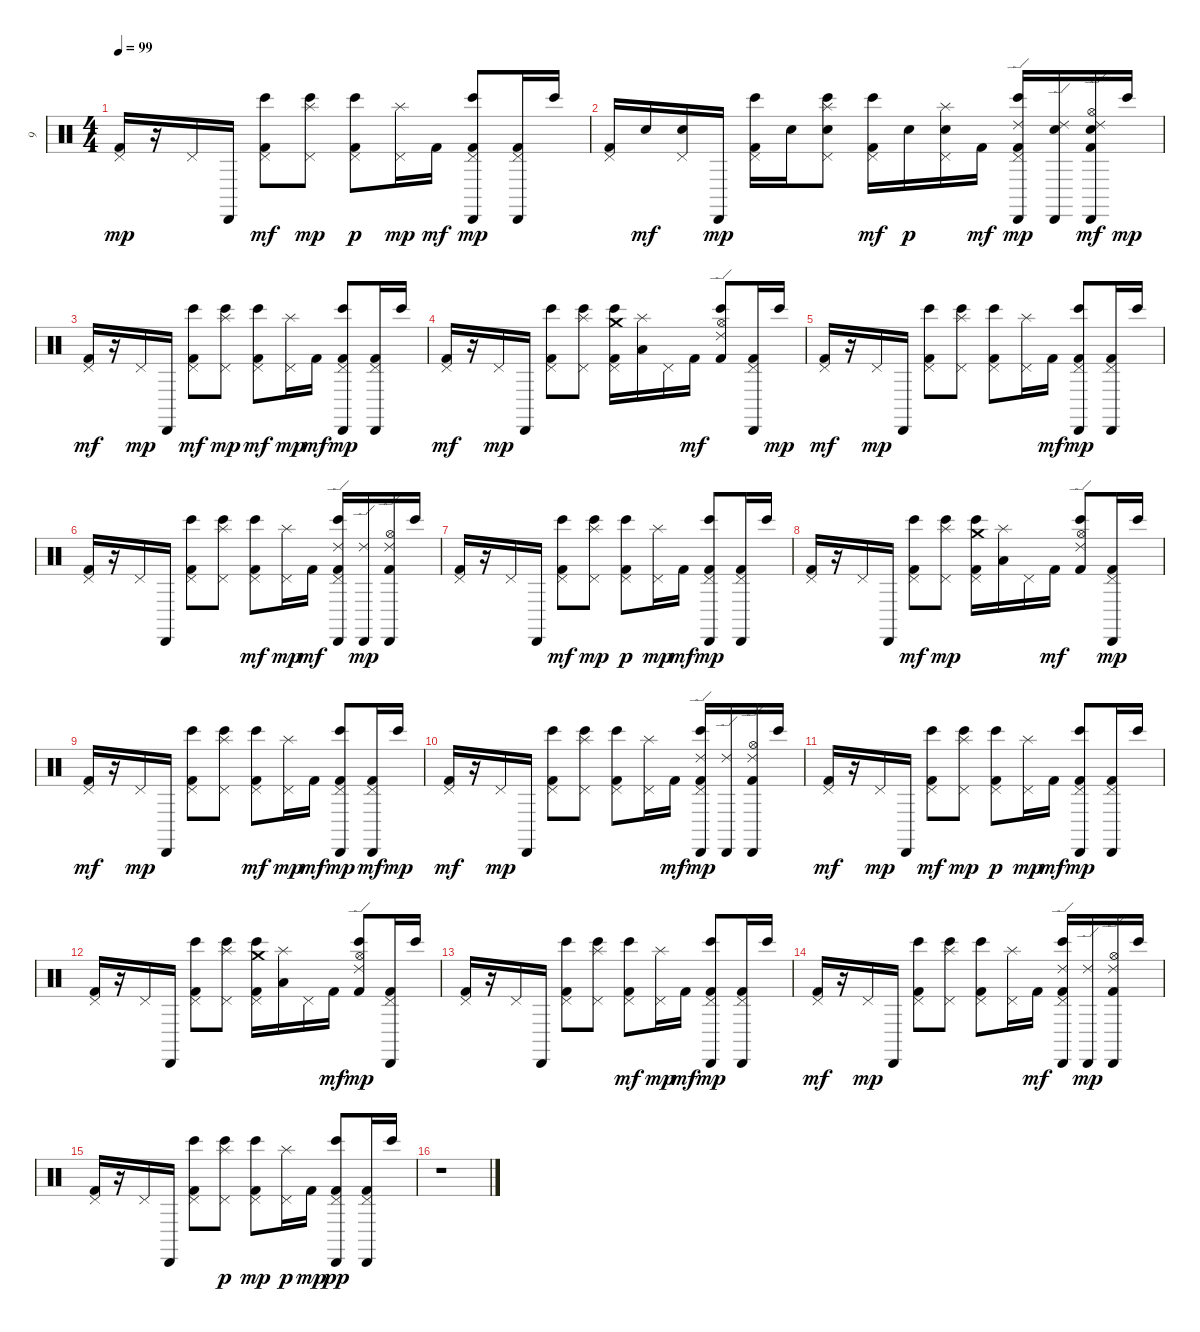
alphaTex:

\track ("9" "9") {instrument percussion}
\staff {score}
\articulation defaults
\ts (4 4)
\tempo 99
\clef neutral
\ks c
("Kick (hit) 2" "Pedal Hi-Hat (hit)").16{dy mp} r.16 "Pedal Hi-Hat (hit)".16 "Cabasa (hit)".16 ("Bongo High (hit)" "Pedal Hi-Hat (hit)" "Kick (hit) 2").8{dy mf} ("Bongo High (hit)" "Pedal Hi-Hat (hit)" "Splash (hit)").8{dy mp} ("Kick (hit) 2" "Pedal Hi-Hat (hit)" "Bongo High (hit)").8{dy p} ("Splash (hit)" "Pedal Hi-Hat (hit)").16{dy mp} "Kick (hit) 2".16{dy mf} ("Kick (hit) 2" "Pedal Hi-Hat (hit)" "Cabasa (hit)" "Bongo High (hit)").8{dy mp} ("Kick (hit) 2" "Cabasa (hit)" "Pedal Hi-Hat (hit)").16 "Bongo High (hit)".16 |
("Kick (hit) 2" "Pedal Hi-Hat (hit)").16 "Snare (hit) 2".16{dy mf} ("Pedal Hi-Hat (hit)" "Snare (hit) 2").16 "Cabasa (hit)".16{dy mp} ("Kick (hit) 2" "Pedal Hi-Hat (hit)" "Bongo High (hit)").16 "Snare (hit) 2".16 ("Pedal Hi-Hat (hit)" "Bongo High (hit)" "Snare (hit) 2" "Splash (hit)").8 ("Bongo High (hit)" "Pedal Hi-Hat (hit)" "Kick (hit) 2").16{dy mf} "Snare (hit) 2".16{dy p} ("Pedal Hi-Hat (hit)" "Splash (hit)" "Snare (hit) 2").16 "Kick (hit) 2".16{dy mf} ("Ride (edge) 2" "Kick (hit) 2" "Cabasa (hit)" "Pedal Hi-Hat (hit)" "Bongo High (hit)").16{dy mp} ("Cabasa (hit)" "Snare (hit) 2" "Ride (edge) 2").16 ("Ride (edge) 2" "Snare (hit) 2" "Cabasa (hit)" "Hi-Hat (open)" "Kick (hit) 2").16{dy mf} "Bongo High (hit)".16{dy mp} |
("Pedal Hi-Hat (hit)" "Kick (hit) 2").16{dy mf} r.16 "Pedal Hi-Hat (hit)".16{dy mp} "Cabasa (hit)".16 ("Bongo High (hit)" "Pedal Hi-Hat (hit)" "Kick (hit) 2").8{dy mf} ("Pedal Hi-Hat (hit)" "Bongo High (hit)" "Splash (hit)").8{dy mp} ("Bongo High (hit)" "Pedal Hi-Hat (hit)" "Kick (hit) 2").8{dy mf} ("Splash (hit)" "Pedal Hi-Hat (hit)").16{dy mp} "Kick (hit) 2".16{dy mf} ("Bongo High (hit)" "Pedal Hi-Hat (hit)" "Kick (hit) 2" "Cabasa (hit)").8{dy mp} ("Kick (hit) 2" "Cabasa (hit)" "Pedal Hi-Hat (hit)").16 "Bongo High (hit)".16 |
("Pedal Hi-Hat (hit)" "Kick (hit) 2").16{dy mf} r.16 "Pedal Hi-Hat (hit)".16{dy mp} "Cabasa (hit)".16 ("Kick (hit) 2" "Pedal Hi-Hat (hit)" "Bongo High (hit)").8 ("Pedal Hi-Hat (hit)" "Bongo High (hit)" "Splash (hit)").8 ("Bongo High (hit)" "Kick (hit) 2" "Pedal Hi-Hat (hit)" "Crash medium (hit)").16 ("Low Tom (hit)" "Splash (hit)").16 "Pedal Hi-Hat (hit)".16 "Kick (hit) 2".16{dy mf} ("Bongo High (hit)" "Ride (edge) 2" "Hi-Hat (open)" "Kick (hit) 2").8 ("Pedal Hi-Hat (hit)" "Cabasa (hit)" "Kick (hit) 2").16 "Bongo High (hit)".16{dy mp} |
("Pedal Hi-Hat (hit)" "Kick (hit) 2").16{dy mf} r.16 "Pedal Hi-Hat (hit)".16{dy mp} "Cabasa (hit)".16 ("Kick (hit) 2" "Pedal Hi-Hat (hit)" "Bongo High (hit)").8 ("Bongo High (hit)" "Pedal Hi-Hat (hit)" "Splash (hit)").8 ("Kick (hit) 2" "Bongo High (hit)" "Pedal Hi-Hat (hit)").8 ("Splash (hit)" "Pedal Hi-Hat (hit)").16 "Kick (hit) 2".16{dy mf} ("Kick (hit) 2" "Cabasa (hit)" "Pedal Hi-Hat (hit)" "Bongo High (hit)").8{dy mp} ("Kick (hit) 2" "Pedal Hi-Hat (hit)" "Cabasa (hit)").16 "Bongo High (hit)".16 |
("Kick (hit) 2" "Pedal Hi-Hat (hit)").16 r.16 "Pedal Hi-Hat (hit)".16 "Cabasa (hit)".16 ("Kick (hit) 2" "Pedal Hi-Hat (hit)" "Bongo High (hit)").8 ("Bongo High (hit)" "Pedal Hi-Hat (hit)" "Splash (hit)").8 ("Pedal Hi-Hat (hit)" "Bongo High (hit)" "Kick (hit) 2").8{dy mf} ("Pedal Hi-Hat (hit)" "Splash (hit)").16{dy mp} "Kick (hit) 2".16{dy mf} ("Bongo High (hit)" "Cabasa (hit)" "Pedal Hi-Hat (hit)" "Ride (edge) 2" "Kick (hit) 2").16 ("Cabasa (hit)" "Ride (edge) 2").16{dy mp} ("Hi-Hat (open)" "Kick (hit) 2" "Ride (edge) 2" "Cabasa (hit)").16 "Bongo High (hit)".16 |
("Kick (hit) 2" "Pedal Hi-Hat (hit)").16 r.16 "Pedal Hi-Hat (hit)".16 "Cabasa (hit)".16 ("Bongo High (hit)" "Pedal Hi-Hat (hit)" "Kick (hit) 2").8{dy mf} ("Pedal Hi-Hat (hit)" "Bongo High (hit)" "Splash (hit)").8{dy mp} ("Pedal Hi-Hat (hit)" "Kick (hit) 2" "Bongo High (hit)").8{dy p} ("Pedal Hi-Hat (hit)" "Splash (hit)").16{dy mp} "Kick (hit) 2".16{dy mf} ("Cabasa (hit)" "Bongo High (hit)" "Kick (hit) 2" "Pedal Hi-Hat (hit)").8{dy mp} ("Cabasa (hit)" "Kick (hit) 2" "Pedal Hi-Hat (hit)").16 "Bongo High (hit)".16 |
("Kick (hit) 2" "Pedal Hi-Hat (hit)").16 r.16 "Pedal Hi-Hat (hit)".16 "Cabasa (hit)".16 ("Bongo High (hit)" "Pedal Hi-Hat (hit)" "Kick (hit) 2").8{dy mf} ("Pedal Hi-Hat (hit)" "Bongo High (hit)" "Splash (hit)").8{dy mp} ("Pedal Hi-Hat (hit)" "Kick (hit) 2" "Bongo High (hit)" "Crash medium (hit)").16 ("Splash (hit)" "Low Tom (hit)").16 "Pedal Hi-Hat (hit)".16 "Kick (hit) 2".16{dy mf} ("Ride (edge) 2" "Hi-Hat (open)" "Bongo High (hit)" "Kick (hit) 2").8 ("Kick (hit) 2" "Pedal Hi-Hat (hit)" "Cabasa (hit)").16{dy mp} "Bongo High (hit)".16 |
("Pedal Hi-Hat (hit)" "Kick (hit) 2").16{dy mf} r.16 "Pedal Hi-Hat (hit)".16{dy mp} "Cabasa (hit)".16 ("Kick (hit) 2" "Bongo High (hit)" "Pedal Hi-Hat (hit)").8 ("Bongo High (hit)" "Pedal Hi-Hat (hit)" "Splash (hit)").8 ("Pedal Hi-Hat (hit)" "Bongo High (hit)" "Kick (hit) 2").8{dy mf} ("Splash (hit)" "Pedal Hi-Hat (hit)").16{dy mp} "Kick (hit) 2".16{dy mf} ("Cabasa (hit)" "Kick (hit) 2" "Pedal Hi-Hat (hit)" "Bongo High (hit)").8{dy mp} ("Pedal Hi-Hat (hit)" "Cabasa (hit)" "Kick (hit) 2").16{dy mf} "Bongo High (hit)".16{dy mp} |
("Pedal Hi-Hat (hit)" "Kick (hit) 2").16{dy mf} r.16 "Pedal Hi-Hat (hit)".16{dy mp} "Cabasa (hit)".16 ("Bongo High (hit)" "Kick (hit) 2" "Pedal Hi-Hat (hit)").8 ("Bongo High (hit)" "Pedal Hi-Hat (hit)" "Splash (hit)").8 ("Kick (hit) 2" "Bongo High (hit)" "Pedal Hi-Hat (hit)").8 ("Splash (hit)" "Pedal Hi-Hat (hit)").16 "Kick (hit) 2".16{dy mf} ("Cabasa (hit)" "Ride (edge) 2" "Kick (hit) 2" "Pedal Hi-Hat (hit)" "Bongo High (hit)").16{dy mp} ("Ride (edge) 2" "Cabasa (hit)").16 ("Hi-Hat (open)" "Cabasa (hit)" "Kick (hit) 2" "Ride (edge) 2").16 "Bongo High (hit)".16 |
("Pedal Hi-Hat (hit)" "Kick (hit) 2").16{dy mf} r.16 "Pedal Hi-Hat (hit)".16{dy mp} "Cabasa (hit)".16 ("Bongo High (hit)" "Pedal Hi-Hat (hit)" "Kick (hit) 2").8{dy mf} ("Pedal Hi-Hat (hit)" "Bongo High (hit)" "Splash (hit)").8{dy mp} ("Kick (hit) 2" "Pedal Hi-Hat (hit)" "Bongo High (hit)").8{dy p} ("Pedal Hi-Hat (hit)" "Splash (hit)").16{dy mp} "Kick (hit) 2".16{dy mf} ("Bongo High (hit)" "Kick (hit) 2" "Cabasa (hit)" "Pedal Hi-Hat (hit)").8{dy mp} ("Kick (hit) 2" "Cabasa (hit)" "Pedal Hi-Hat (hit)").16 "Bongo High (hit)".16 |
("Kick (hit) 2" "Pedal Hi-Hat (hit)").16 r.16 "Pedal Hi-Hat (hit)".16 "Cabasa (hit)".16 ("Kick (hit) 2" "Pedal Hi-Hat (hit)" "Bongo High (hit)").8 ("Pedal Hi-Hat (hit)" "Bongo High (hit)" "Splash (hit)").8 ("Kick (hit) 2" "Pedal Hi-Hat (hit)" "Bongo High (hit)" "Crash medium (hit)").16 ("Low Tom (hit)" "Splash (hit)").16 "Pedal Hi-Hat (hit)".16 "Kick (hit) 2".16{dy mf} ("Kick (hit) 2" "Bongo High (hit)" "Ride (edge) 2" "Hi-Hat (open)").8{dy mp} ("Kick (hit) 2" "Cabasa (hit)" "Pedal Hi-Hat (hit)").16 "Bongo High (hit)".16 |
("Kick (hit) 2" "Pedal Hi-Hat (hit)").16 r.16 "Pedal Hi-Hat (hit)".16 "Cabasa (hit)".16 ("Bongo High (hit)" "Kick (hit) 2" "Pedal Hi-Hat (hit)").8 ("Pedal Hi-Hat (hit)" "Bongo High (hit)" "Splash (hit)").8 ("Bongo High (hit)" "Pedal Hi-Hat (hit)" "Kick (hit) 2").8{dy mf} ("Splash (hit)" "Pedal Hi-Hat (hit)").16{dy mp} "Kick (hit) 2".16{dy mf} ("Pedal Hi-Hat (hit)" "Bongo High (hit)" "Kick (hit) 2" "Cabasa (hit)").8{dy mp} ("Pedal Hi-Hat (hit)" "Kick (hit) 2" "Cabasa (hit)").16 "Bongo High (hit)".16 |
("Pedal Hi-Hat (hit)" "Kick (hit) 2").16{dy mf} r.16 "Pedal Hi-Hat (hit)".16{dy mp} "Cabasa (hit)".16 ("Kick (hit) 2" "Pedal Hi-Hat (hit)" "Bongo High (hit)").8 ("Bongo High (hit)" "Pedal Hi-Hat (hit)" "Splash (hit)").8 ("Bongo High (hit)" "Kick (hit) 2" "Pedal Hi-Hat (hit)").8 ("Pedal Hi-Hat (hit)" "Splash (hit)").16 "Kick (hit) 2".16{dy mf} ("Pedal Hi-Hat (hit)" "Ride (edge) 2" "Cabasa (hit)" "Bongo High (hit)" "Kick (hit) 2").16 ("Cabasa (hit)" "Ride (edge) 2").16{dy mp} ("Ride (edge) 2" "Hi-Hat (open)" "Kick (hit) 2" "Cabasa (hit)").16 "Bongo High (hit)".16 |
("Kick (hit) 2" "Pedal Hi-Hat (hit)").16 r.16 "Pedal Hi-Hat (hit)".16 "Cabasa (hit)".16 ("Pedal Hi-Hat (hit)" "Kick (hit) 2" "Bongo High (hit)").8 ("Bongo High (hit)" "Pedal Hi-Hat (hit)" "Splash (hit)").8{dy p} ("Pedal Hi-Hat (hit)" "Bongo High (hit)" "Kick (hit) 2").8{dy mp} ("Pedal Hi-Hat (hit)" "Splash (hit)").16{dy p} "Kick (hit) 2".16{dy mp} ("Bongo High (hit)" "Kick (hit) 2" "Cabasa (hit)" "Pedal Hi-Hat (hit)").8{dy pp} ("Kick (hit) 2" "Cabasa (hit)" "Pedal Hi-Hat (hit)").16 "Bongo High (hit)".16 |
r.1
